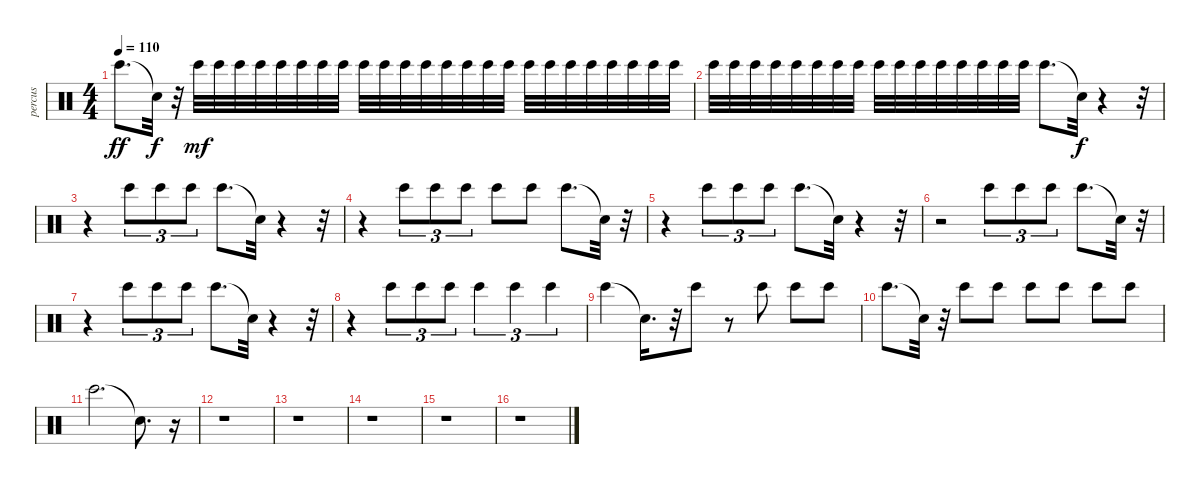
\track ("percus" "percus") {instrument percussion}
\staff {score}
\articulation defaults
\ts (4 4)
\tempo 110
\clef neutral
\ks c "Bongo High (hit)".8{d dy ff} "Snare (hit)"{t}.32{dy f}
r.32 "Bongo High (hit)".32{dy mf} "Bongo High (hit)".32 "Bongo High (hit)".32 "Bongo High (hit)".32 "Bongo High (hit)".32 "Bongo High (hit)".32 "Bongo High (hit)".32 "Bongo High (hit)".32 "Bongo High (hit)".32 "Bongo High (hit)".32 "Bongo High (hit)".32 "Bongo High (hit)".32 "Bongo High (hit)".32 "Bongo High (hit)".32 "Bongo High (hit)".32 "Bongo High (hit)".32 "Bongo High (hit)".32 "Bongo High (hit)".32 "Bongo High (hit)".32 "Bongo High (hit)".32 "Bongo High (hit)".32 "Bongo High (hit)".32 "Bongo High (hit)".32 "Bongo High (hit)".32 |
"Bongo High (hit)".32 "Bongo High (hit)".32 "Bongo High (hit)".32 "Bongo High (hit)".32 "Bongo High (hit)".32 "Bongo High (hit)".32 "Bongo High (hit)".32 "Bongo High (hit)".32 "Bongo High (hit)".32 "Bongo High (hit)".32 "Bongo High (hit)".32 "Bongo High (hit)".32 "Bongo High (hit)".32 "Bongo High (hit)".32 "Bongo High (hit)".32 "Bongo High (hit)".32 "Bongo High (hit)".8{d} "Snare (hit)"{t}.32{dy f} r.4 r.32 |
r.4 "Bongo High (hit)".8{tu (3 2)} "Bongo High (hit)".8{tu (3 2)} "Bongo High (hit)".8{tu (3 2)} "Bongo High (hit)".8{d} "Snare (hit)"{t}.32 r.4 r.32 |
r.4 "Bongo High (hit)".8{tu (3 2)} "Bongo High (hit)".8{tu (3 2)} "Bongo High (hit)".8{tu (3 2)} "Bongo High (hit)".8 "Bongo High (hit)".8 "Bongo High (hit)".8{d} "Snare (hit)"{t}.32 r.32 |
r.4 "Bongo High (hit)".8{tu (3 2)} "Bongo High (hit)".8{tu (3 2)} "Bongo High (hit)".8{tu (3 2)} "Bongo High (hit)".8{d} "Snare (hit)"{t}.32 r.4 r.32 |
r.2 "Bongo High (hit)".8{tu (3 2)} "Bongo High (hit)".8{tu (3 2)} "Bongo High (hit)".8{tu (3 2)} "Bongo High (hit)".8{d} "Snare (hit)"{t}.32 r.32 |
r.4 "Bongo High (hit)".8{tu (3 2)} "Bongo High (hit)".8{tu (3 2)} "Bongo High (hit)".8{tu (3 2)} "Bongo High (hit)".8{d} "Snare (hit)"{t}.32 r.4 r.32 |
r.4 "Bongo High (hit)".8{tu (3 2)} "Bongo High (hit)".8{tu (3 2)} "Bongo High (hit)".8{tu (3 2)} "Bongo High (hit)".4{tu (3 2)} "Bongo High (hit)".4{tu (3 2)} "Bongo High (hit)".4{tu (3 2)} |
"Bongo High (hit)".4 "Snare (hit)"{t}.16{d} r.32 "Bongo High (hit)".8 r.8 "Bongo High (hit)".8 "Bongo High (hit)".8 "Bongo High (hit)".8 |
"Bongo High (hit)".8{d} "Snare (hit)"{t}.32 r.32 "Bongo High (hit)".8 "Bongo High (hit)".8 "Bongo High (hit)".8 "Bongo High (hit)".8 "Bongo High (hit)".8 "Bongo High (hit)".8 |
"Bongo High (hit)".2{d} "Snare (hit)"{t}.8{d} r.16 |
r.1 |
r.1 |
r.1 |
r.1 |
r.1
